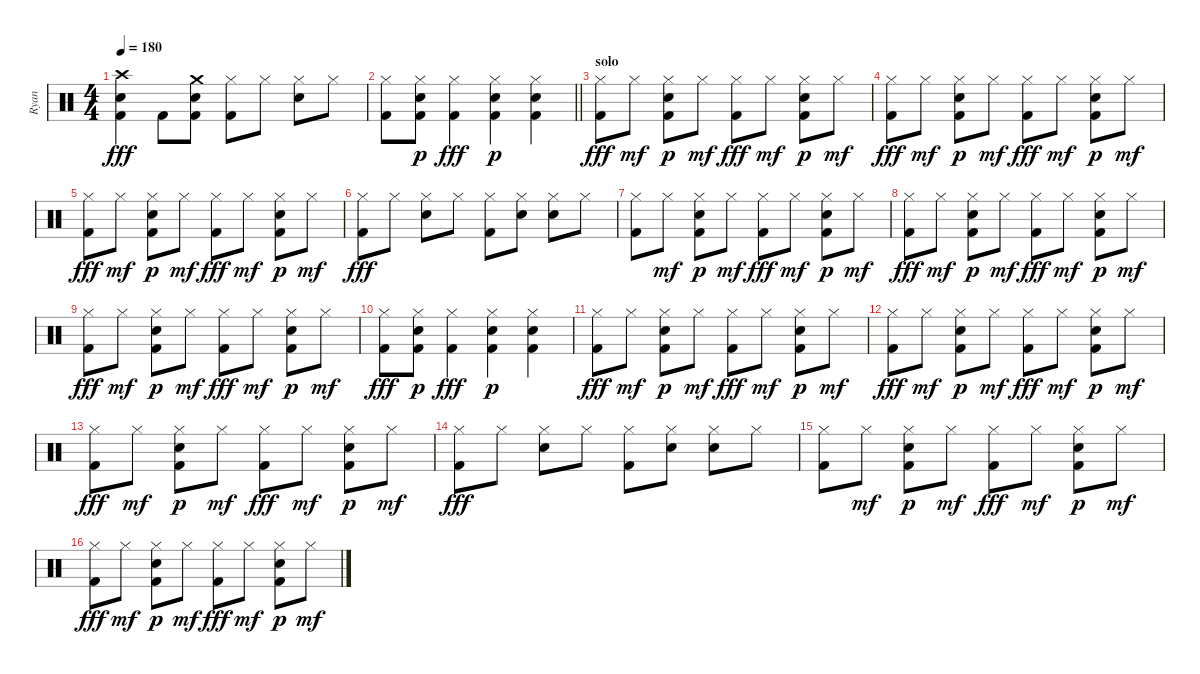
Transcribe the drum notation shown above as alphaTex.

\track ("Ryan" "Ryan") {instrument percussion}
\staff {score}
\articulation defaults
\ts (4 4)
\tempo 180
\clef neutral
\ks c
("Kick (hit) 2" "Snare (hit) 2" "Crash high (hit)").4{dy fff} "Kick (hit) 2".8 ("Kick (hit) 2" "Snare (hit) 2" "Crash medium (hit)").8 ("Kick (hit) 2" "Hi-Hat (closed)").8 "Hi-Hat (closed)".8 ("Snare (hit) 2" "Hi-Hat (closed)").8 "Hi-Hat (closed)".8 |
\barLineRight lightlight
("Kick (hit) 2" "Hi-Hat (closed)").8 ("Snare (hit) 2" "Hi-Hat (closed)" "Kick (hit) 2").8{dy p} ("Kick (hit) 2" "Hi-Hat (closed)").4{dy fff} ("Snare (hit) 2" "Hi-Hat (closed)" "Kick (hit) 2").4{dy p} ("Snare (hit) 2" "Hi-Hat (closed)" "Kick (hit) 2").4 |
\section ("" "solo")
("Kick (hit) 2" "Hi-Hat (closed)").8{dy fff} "Hi-Hat (closed)".8{dy mf} ("Snare (hit) 2" "Hi-Hat (closed)" "Kick (hit) 2").8{dy p} "Hi-Hat (closed)".8{dy mf} ("Kick (hit) 2" "Hi-Hat (closed)").8{dy fff} "Hi-Hat (closed)".8{dy mf} ("Snare (hit) 2" "Hi-Hat (closed)" "Kick (hit) 2").8{dy p} "Hi-Hat (closed)".8{dy mf} |
("Kick (hit) 2" "Hi-Hat (closed)").8{dy fff} "Hi-Hat (closed)".8{dy mf} ("Snare (hit) 2" "Hi-Hat (closed)" "Kick (hit) 2").8{dy p} "Hi-Hat (closed)".8{dy mf} ("Kick (hit) 2" "Hi-Hat (closed)").8{dy fff} "Hi-Hat (closed)".8{dy mf} ("Snare (hit) 2" "Hi-Hat (closed)" "Kick (hit) 2").8{dy p} "Hi-Hat (closed)".8{dy mf} |
("Kick (hit) 2" "Hi-Hat (closed)").8{dy fff} "Hi-Hat (closed)".8{dy mf} ("Snare (hit) 2" "Hi-Hat (closed)" "Kick (hit) 2").8{dy p} "Hi-Hat (closed)".8{dy mf} ("Kick (hit) 2" "Hi-Hat (closed)").8{dy fff} "Hi-Hat (closed)".8{dy mf} ("Snare (hit) 2" "Hi-Hat (closed)" "Kick (hit) 2").8{dy p} "Hi-Hat (closed)".8{dy mf} |
("Kick (hit) 2" "Hi-Hat (closed)").8{dy fff} "Hi-Hat (closed)".8 ("Snare (hit) 2" "Hi-Hat (closed)").8 "Hi-Hat (closed)".8 ("Kick (hit) 2" "Hi-Hat (closed)").8 ("Snare (hit) 2" "Hi-Hat (closed)").8 ("Snare (hit) 2" "Hi-Hat (closed)").8 "Hi-Hat (closed)".8 |
("Kick (hit) 2" "Hi-Hat (closed)").8 "Hi-Hat (closed)".8{dy mf} ("Snare (hit) 2" "Hi-Hat (closed)" "Kick (hit) 2").8{dy p} "Hi-Hat (closed)".8{dy mf} ("Kick (hit) 2" "Hi-Hat (closed)").8{dy fff} "Hi-Hat (closed)".8{dy mf} ("Snare (hit) 2" "Hi-Hat (closed)" "Kick (hit) 2").8{dy p} "Hi-Hat (closed)".8{dy mf} |
("Kick (hit) 2" "Hi-Hat (closed)").8{dy fff} "Hi-Hat (closed)".8{dy mf} ("Snare (hit) 2" "Hi-Hat (closed)" "Kick (hit) 2").8{dy p} "Hi-Hat (closed)".8{dy mf} ("Kick (hit) 2" "Hi-Hat (closed)").8{dy fff} "Hi-Hat (closed)".8{dy mf} ("Snare (hit) 2" "Hi-Hat (closed)" "Kick (hit) 2").8{dy p} "Hi-Hat (closed)".8{dy mf} |
("Kick (hit) 2" "Hi-Hat (closed)").8{dy fff} "Hi-Hat (closed)".8{dy mf} ("Snare (hit) 2" "Hi-Hat (closed)" "Kick (hit) 2").8{dy p} "Hi-Hat (closed)".8{dy mf} ("Kick (hit) 2" "Hi-Hat (closed)").8{dy fff} "Hi-Hat (closed)".8{dy mf} ("Snare (hit) 2" "Hi-Hat (closed)" "Kick (hit) 2").8{dy p} "Hi-Hat (closed)".8{dy mf} |
("Kick (hit) 2" "Hi-Hat (closed)").8{dy fff} ("Snare (hit) 2" "Hi-Hat (closed)" "Kick (hit) 2").8{dy p} ("Kick (hit) 2" "Hi-Hat (closed)").4{dy fff} ("Snare (hit) 2" "Hi-Hat (closed)" "Kick (hit) 2").4{dy p} ("Snare (hit) 2" "Hi-Hat (closed)" "Kick (hit) 2").4 |
("Kick (hit) 2" "Hi-Hat (closed)").8{dy fff} "Hi-Hat (closed)".8{dy mf} ("Snare (hit) 2" "Hi-Hat (closed)" "Kick (hit) 2").8{dy p} "Hi-Hat (closed)".8{dy mf} ("Kick (hit) 2" "Hi-Hat (closed)").8{dy fff} "Hi-Hat (closed)".8{dy mf} ("Snare (hit) 2" "Hi-Hat (closed)" "Kick (hit) 2").8{dy p} "Hi-Hat (closed)".8{dy mf} |
("Kick (hit) 2" "Hi-Hat (closed)").8{dy fff} "Hi-Hat (closed)".8{dy mf} ("Snare (hit) 2" "Hi-Hat (closed)" "Kick (hit) 2").8{dy p} "Hi-Hat (closed)".8{dy mf} ("Kick (hit) 2" "Hi-Hat (closed)").8{dy fff} "Hi-Hat (closed)".8{dy mf} ("Snare (hit) 2" "Hi-Hat (closed)" "Kick (hit) 2").8{dy p} "Hi-Hat (closed)".8{dy mf} |
("Kick (hit) 2" "Hi-Hat (closed)").8{dy fff} "Hi-Hat (closed)".8{dy mf} ("Snare (hit) 2" "Hi-Hat (closed)" "Kick (hit) 2").8{dy p} "Hi-Hat (closed)".8{dy mf} ("Kick (hit) 2" "Hi-Hat (closed)").8{dy fff} "Hi-Hat (closed)".8{dy mf} ("Snare (hit) 2" "Hi-Hat (closed)" "Kick (hit) 2").8{dy p} "Hi-Hat (closed)".8{dy mf} |
("Kick (hit) 2" "Hi-Hat (closed)").8{dy fff} "Hi-Hat (closed)".8 ("Snare (hit) 2" "Hi-Hat (closed)").8 "Hi-Hat (closed)".8 ("Kick (hit) 2" "Hi-Hat (closed)").8 ("Snare (hit) 2" "Hi-Hat (closed)").8 ("Snare (hit) 2" "Hi-Hat (closed)").8 "Hi-Hat (closed)".8 |
("Kick (hit) 2" "Hi-Hat (closed)").8 "Hi-Hat (closed)".8{dy mf} ("Snare (hit) 2" "Hi-Hat (closed)" "Kick (hit) 2").8{dy p} "Hi-Hat (closed)".8{dy mf} ("Kick (hit) 2" "Hi-Hat (closed)").8{dy fff} "Hi-Hat (closed)".8{dy mf} ("Snare (hit) 2" "Hi-Hat (closed)" "Kick (hit) 2").8{dy p} "Hi-Hat (closed)".8{dy mf} |
("Kick (hit) 2" "Hi-Hat (closed)").8{dy fff} "Hi-Hat (closed)".8{dy mf} ("Snare (hit) 2" "Hi-Hat (closed)" "Kick (hit) 2").8{dy p} "Hi-Hat (closed)".8{dy mf} ("Kick (hit) 2" "Hi-Hat (closed)").8{dy fff} "Hi-Hat (closed)".8{dy mf} ("Snare (hit) 2" "Hi-Hat (closed)" "Kick (hit) 2").8{dy p} "Hi-Hat (closed)".8{dy mf}
